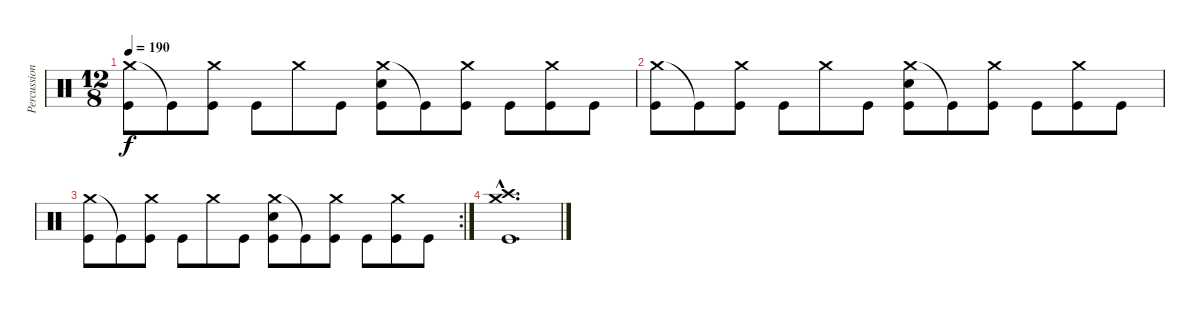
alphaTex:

\track ("Percussion" "Percussion") {instrument percussion}
\staff {score}
\articulation defaults
\ts (12 8)
\tempo 190
\clef neutral
\ks c
("Crash medium (hit)" "Kick (hit)").8{dy f} "Kick (hit)"{t}.8 ("Crash medium (hit)" "Kick (hit)").8 "Kick (hit)".8 "Crash medium (hit)".8 "Kick (hit)".8 ("Crash medium (hit)" "Snare (hit) 2" "Kick (hit)").8 "Kick (hit)"{t}.8 ("Crash medium (hit)" "Kick (hit)").8 "Kick (hit)".8 ("Crash medium (hit)" "Kick (hit)").8 "Kick (hit)".8 |
("Crash medium (hit)" "Kick (hit)").8 "Kick (hit)"{t}.8 ("Crash medium (hit)" "Kick (hit)").8 "Kick (hit)".8 "Crash medium (hit)".8 "Kick (hit)".8 ("Crash medium (hit)" "Snare (hit) 2" "Kick (hit)").8 "Kick (hit)"{t}.8 ("Crash medium (hit)" "Kick (hit)").8 "Kick (hit)".8 ("Crash medium (hit)" "Kick (hit)").8 "Kick (hit)".8 |
\rc 2
("Crash medium (hit)" "Kick (hit)").8 "Kick (hit)"{t}.8 ("Crash medium (hit)" "Kick (hit)").8 "Kick (hit)".8 "Crash medium (hit)".8 "Kick (hit)".8 ("Crash medium (hit)" "Snare (hit) 2" "Kick (hit)").8 "Kick (hit)"{t}.8 ("Crash medium (hit)" "Kick (hit)").8 "Kick (hit)".8 ("Crash medium (hit)" "Kick (hit)").8 "Kick (hit)".8 |
("Crash medium (hit)"{hac} "Crash high (hit)"{hac} "Kick (hit)"{hac}).1{d}
